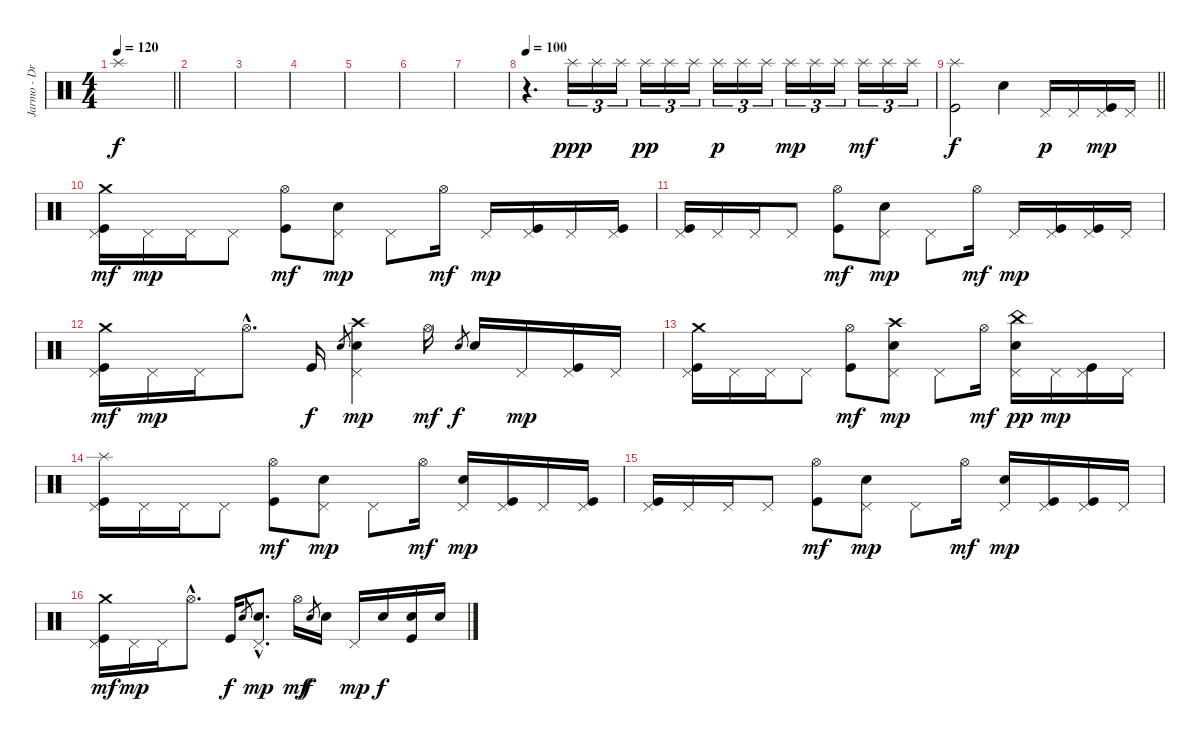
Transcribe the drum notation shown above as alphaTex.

\track ("Jarmo - Drums" "Jarmo - Dr") {instrument percussion}
\staff {score}
\articulation defaults
\ts (4 4)
\tempo 120
\clef neutral
\barLineRight lightlight
\ks c "Splash (hit)".1{dy f}
|
|
|
|
|
|
|
\tempo 100
r.4{d} "Splash (hit)".16{tu (3 2) dy ppp} "Splash (hit)".16{tu (3 2)} "Splash (hit)".16{tu (3 2)} "Splash (hit)".16{tu (3 2) dy pp} "Splash (hit)".16{tu (3 2)} "Splash (hit)".16{tu (3 2)} "Splash (hit)".16{tu (3 2) dy p} "Splash (hit)".16{tu (3 2)} "Splash (hit)".16{tu (3 2)} "Splash (hit)".16{tu (3 2) dy mp} "Splash (hit)".16{tu (3 2)} "Splash (hit)".16{tu (3 2)} "Splash (hit)".16{tu (3 2) dy mf} "Splash (hit)".16{tu (3 2)} "Splash (hit)".16{tu (3 2)} |
\barLineRight lightlight
("Kick (hit)" "Splash (hit)").2{dy f} "Electric Snare (hit)".4 "Pedal Hi-Hat (hit)".16{dy p} "Pedal Hi-Hat (hit)".16 ("Kick (hit)" "Pedal Hi-Hat (hit)").16{dy mp} "Pedal Hi-Hat (hit)".16 |
("Kick (hit)" "Pedal Hi-Hat (hit)" "Crash medium (hit)").16{dy mf} "Pedal Hi-Hat (hit)".16{dy mp} "Pedal Hi-Hat (hit)".16 "Pedal Hi-Hat (hit)".8 ("Kick (hit)" "Hi-Hat (open)").8{dy mf} ("Electric Snare (hit)" "Pedal Hi-Hat (hit)").8{dy mp} "Pedal Hi-Hat (hit)".8 "Hi-Hat (open)".16{dy mf} "Pedal Hi-Hat (hit)".16{dy mp} ("Kick (hit)" "Pedal Hi-Hat (hit)").16 "Pedal Hi-Hat (hit)".16 ("Kick (hit)" "Pedal Hi-Hat (hit)").16 |
("Kick (hit)" "Pedal Hi-Hat (hit)").16 "Pedal Hi-Hat (hit)".16 "Pedal Hi-Hat (hit)".16 "Pedal Hi-Hat (hit)".8 ("Kick (hit)" "Hi-Hat (open)").8{dy mf} ("Electric Snare (hit)" "Pedal Hi-Hat (hit)").8{dy mp} "Pedal Hi-Hat (hit)".8 "Hi-Hat (open)".16{dy mf} "Pedal Hi-Hat (hit)".16{dy mp} ("Kick (hit)" "Pedal Hi-Hat (hit)").16 ("Kick (hit)" "Pedal Hi-Hat (hit)").16 "Pedal Hi-Hat (hit)".16 |
("Kick (hit)" "Pedal Hi-Hat (hit)" "Crash medium (hit)").16{dy mf} "Pedal Hi-Hat (hit)".16{dy mp} "Pedal Hi-Hat (hit)".16 "Hi-Hat (open)"{hac}.8{d} "Kick (hit)".16{dy f} "Snare (hit) 2".8{gr} ("Electric Snare (hit)" "Pedal Hi-Hat (hit)" "Crash high (hit)").4{dy mp} "Hi-Hat (open)".16{dy mf} "Snare (hit) 2".8{gr dy f} "Electric Snare (hit)".16 "Pedal Hi-Hat (hit)".16{dy mp} ("Kick (hit)" "Pedal Hi-Hat (hit)").16 "Pedal Hi-Hat (hit)".16 |
("Kick (hit)" "Pedal Hi-Hat (hit)" "Crash medium (hit)").16 "Pedal Hi-Hat (hit)".16 "Pedal Hi-Hat (hit)".16 "Pedal Hi-Hat (hit)".8 ("Kick (hit)" "Hi-Hat (open)").8{dy mf} ("Electric Snare (hit)" "Pedal Hi-Hat (hit)" "Crash high (hit)").8{dy mp} "Pedal Hi-Hat (hit)".8 "Hi-Hat (open)".16{dy mf} ("Electric Snare (hit)" "Pedal Hi-Hat (hit)" "China (hit)").16{dy pp} "Pedal Hi-Hat (hit)".16{dy mp} ("Kick (hit)" "Pedal Hi-Hat (hit)").16 "Pedal Hi-Hat (hit)".16 |
("Kick (hit)" "Pedal Hi-Hat (hit)" "Splash (hit)").16 "Pedal Hi-Hat (hit)".16 "Pedal Hi-Hat (hit)".16 "Pedal Hi-Hat (hit)".8 ("Kick (hit)" "Hi-Hat (open)").8{dy mf} ("Electric Snare (hit)" "Pedal Hi-Hat (hit)").8{dy mp} "Pedal Hi-Hat (hit)".8 "Hi-Hat (open)".16{dy mf} ("Electric Snare (hit)" "Pedal Hi-Hat (hit)").16{dy mp} ("Kick (hit)" "Pedal Hi-Hat (hit)").16 "Pedal Hi-Hat (hit)".16 ("Kick (hit)" "Pedal Hi-Hat (hit)").16 |
("Kick (hit)" "Pedal Hi-Hat (hit)").16 "Pedal Hi-Hat (hit)".16 "Pedal Hi-Hat (hit)".16 "Pedal Hi-Hat (hit)".8 ("Kick (hit)" "Hi-Hat (open)").8{dy mf} ("Electric Snare (hit)" "Pedal Hi-Hat (hit)").8{dy mp} "Pedal Hi-Hat (hit)".8 "Hi-Hat (open)".16{dy mf} ("Electric Snare (hit)" "Pedal Hi-Hat (hit)").16{dy mp} ("Kick (hit)" "Pedal Hi-Hat (hit)").16 ("Kick (hit)" "Pedal Hi-Hat (hit)").16 "Pedal Hi-Hat (hit)".16 |
("Kick (hit)" "Pedal Hi-Hat (hit)" "Crash medium (hit)").16{dy mf} "Pedal Hi-Hat (hit)".16{dy mp} "Pedal Hi-Hat (hit)".16 "Hi-Hat (open)"{hac}.8{d} "Kick (hit)".16{dy f} "Snare (hit) 2".8{gr} ("Electric Snare (hit)"{hac} "Pedal Hi-Hat (hit)"{hac}).8{d dy mp} "Hi-Hat (open)".16{dy mf} "Snare (hit) 2".8{gr dy f} "Electric Snare (hit)".16 "Pedal Hi-Hat (hit)".16{dy mp} "Electric Snare (hit)".16{dy f} ("Kick (hit)" "Electric Snare (hit)").16 "Electric Snare (hit)".16
